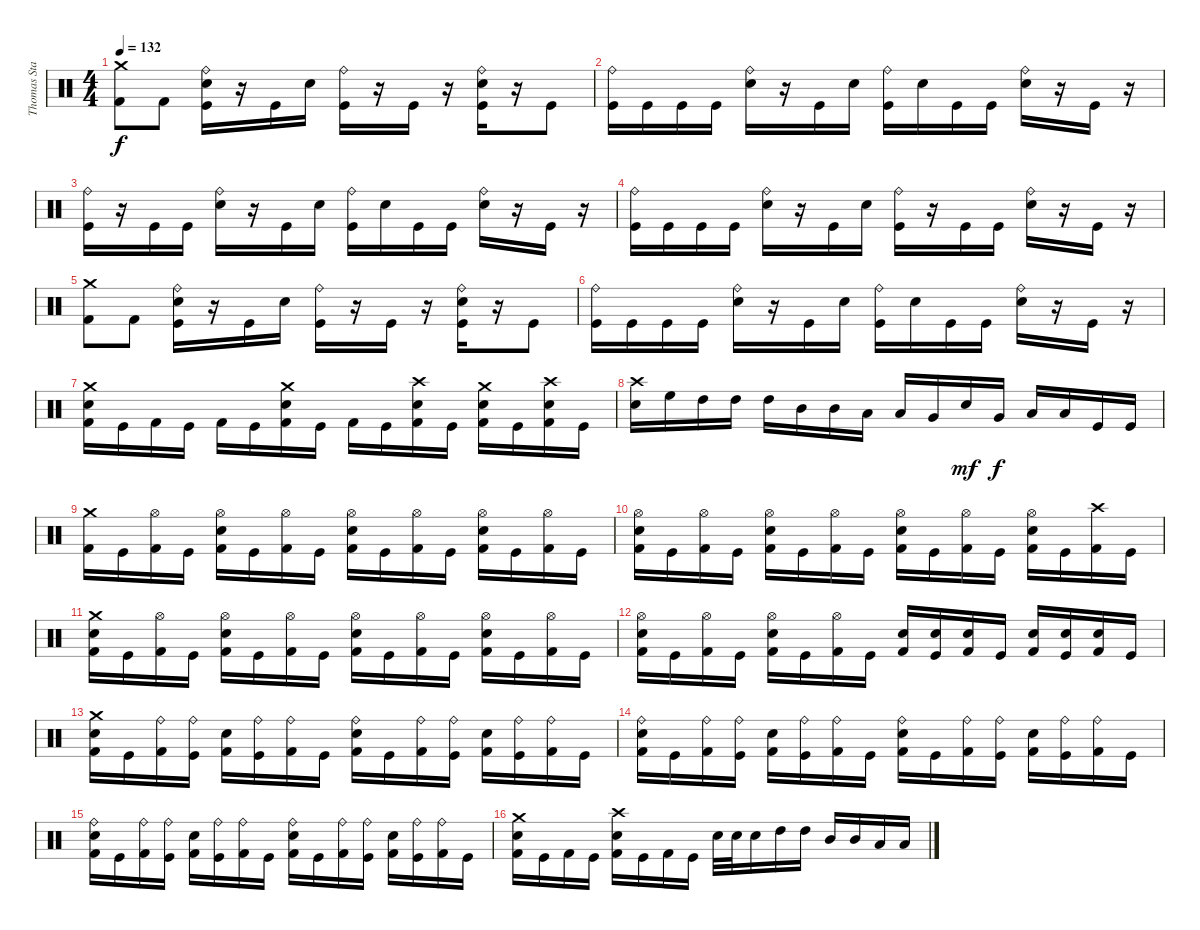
\track ("Thomas Stauch" "Thomas Sta") {instrument percussion}
\staff {score}
\articulation defaults
\ts (4 4)
\tempo 132
\clef neutral
\ks c
("Crash medium (hit)" "Kick (hit) 2").8{dy f} "Kick (hit) 2".8 ("Ride (bell)" "Electric Snare (hit)" "Kick (hit)").16 r.16 "Kick (hit)".16 "Electric Snare (hit)".16 ("Ride (bell)" "Kick (hit)").16 r.16 "Kick (hit)".16 r.16 ("Ride (bell)" "Electric Snare (hit)" "Kick (hit)").16 r.16 "Kick (hit)".8 |
("Ride (bell)" "Kick (hit)").16 "Kick (hit)".16 "Kick (hit)".16 "Kick (hit)".16 ("Ride (bell)" "Electric Snare (hit)").16 r.16 "Kick (hit)".16 "Electric Snare (hit)".16 ("Ride (bell)" "Kick (hit)").16 "Electric Snare (hit)".16 "Kick (hit)".16 "Kick (hit)".16 ("Ride (bell)" "Electric Snare (hit)").16 r.16 "Kick (hit)".16 r.16 |
("Ride (bell)" "Kick (hit)").16 r.16 "Kick (hit)".16 "Kick (hit)".16 ("Ride (bell)" "Electric Snare (hit)").16 r.16 "Kick (hit)".16 "Electric Snare (hit)".16 ("Ride (bell)" "Kick (hit)").16 "Electric Snare (hit)".16 "Kick (hit)".16 "Kick (hit)".16 ("Ride (bell)" "Electric Snare (hit)").16 r.16 "Kick (hit)".16 r.16 |
("Ride (bell)" "Kick (hit)").16 "Kick (hit)".16 "Kick (hit)".16 "Kick (hit)".16 ("Ride (bell)" "Electric Snare (hit)").16 r.16 "Kick (hit)".16 "Electric Snare (hit)".16 ("Ride (bell)" "Kick (hit)").16 r.16 "Kick (hit)".16 "Kick (hit)".16 ("Ride (bell)" "Electric Snare (hit)").16 r.16 "Kick (hit)".16 r.16 |
("Crash medium (hit)" "Kick (hit) 2").8 "Kick (hit) 2".8 ("Ride (bell)" "Electric Snare (hit)" "Kick (hit)").16 r.16 "Kick (hit)".16 "Electric Snare (hit)".16 ("Ride (bell)" "Kick (hit)").16 r.16 "Kick (hit)".16 r.16 ("Ride (bell)" "Electric Snare (hit)" "Kick (hit)").16 r.16 "Kick (hit)".8 |
("Ride (bell)" "Kick (hit)").16 "Kick (hit)".16 "Kick (hit)".16 "Kick (hit)".16 ("Ride (bell)" "Electric Snare (hit)").16 r.16 "Kick (hit)".16 "Electric Snare (hit)".16 ("Ride (bell)" "Kick (hit)").16 "Electric Snare (hit)".16 "Kick (hit)".16 "Kick (hit)".16 ("Ride (bell)" "Electric Snare (hit)").16 r.16 "Kick (hit)".16 r.16 |
("Crash medium (hit)" "Electric Snare (hit)" "Kick (hit) 2").16 "Kick (hit)".16 "Kick (hit) 2".16 "Kick (hit)".16 "Kick (hit) 2".16 "Kick (hit)".16 ("Crash medium (hit)" "Electric Snare (hit)" "Kick (hit) 2").16 "Kick (hit)".16 "Kick (hit) 2".16 "Kick (hit)".16 ("Crash high (hit)" "Electric Snare (hit)" "Kick (hit) 2").16 "Kick (hit)".16 ("Crash medium (hit)" "Electric Snare (hit)" "Kick (hit) 2").16 "Kick (hit)".16 ("Crash high (hit)" "Electric Snare (hit)" "Kick (hit) 2").16 "Kick (hit)".16 |
("Crash high (hit)" "Electric Snare (hit)").16 "High Floor Tom (hit)".16 "High Tom (hit)".16 "High Tom (hit)".16 "High Tom (hit)".16 "Mid Tom (hit)".16 "Mid Tom (hit)".16 "Low Tom (hit)".16 "Low Tom (hit)".16 "Very Low Tom (hit)".16 "Electric Snare (hit)".16{dy mf} "Very Low Tom (hit)".16{dy f} "Low Floor Tom (hit)".16 "Low Floor Tom (hit)".16 "Kick (hit)".16 "Kick (hit)".16 |
("Crash medium (hit)" "Kick (hit) 2").16 "Kick (hit)".16 ("Hi-Hat (open)" "Kick (hit) 2").16 "Kick (hit)".16 ("Hi-Hat (open)" "Electric Snare (hit)" "Kick (hit) 2").16 "Kick (hit)".16 ("Hi-Hat (open)" "Kick (hit) 2").16 "Kick (hit)".16 ("Hi-Hat (open)" "Electric Snare (hit)" "Kick (hit) 2").16 "Kick (hit)".16 ("Hi-Hat (open)" "Kick (hit) 2").16 "Kick (hit)".16 ("Hi-Hat (open)" "Electric Snare (hit)" "Kick (hit) 2").16 "Kick (hit)".16 ("Hi-Hat (open)" "Kick (hit) 2").16 "Kick (hit)".16 |
("Hi-Hat (open)" "Electric Snare (hit)" "Kick (hit) 2").16 "Kick (hit)".16 ("Hi-Hat (open)" "Kick (hit) 2").16 "Kick (hit)".16 ("Hi-Hat (open)" "Electric Snare (hit)" "Kick (hit) 2").16 "Kick (hit)".16 ("Hi-Hat (open)" "Kick (hit) 2").16 "Kick (hit)".16 ("Hi-Hat (open)" "Electric Snare (hit)" "Kick (hit) 2").16 "Kick (hit)".16 ("Hi-Hat (open)" "Kick (hit) 2").16 "Kick (hit)".16 ("Hi-Hat (open)" "Electric Snare (hit)" "Kick (hit) 2").16 "Kick (hit)".16 ("Crash high (hit)" "Kick (hit) 2").16 "Kick (hit)".16 |
("Crash medium (hit)" "Electric Snare (hit)" "Kick (hit) 2").16 "Kick (hit)".16 ("Hi-Hat (open)" "Kick (hit) 2").16 "Kick (hit)".16 ("Hi-Hat (open)" "Electric Snare (hit)" "Kick (hit) 2").16 "Kick (hit)".16 ("Hi-Hat (open)" "Kick (hit) 2").16 "Kick (hit)".16 ("Hi-Hat (open)" "Electric Snare (hit)" "Kick (hit) 2").16 "Kick (hit)".16 ("Hi-Hat (open)" "Kick (hit) 2").16 "Kick (hit)".16 ("Hi-Hat (open)" "Electric Snare (hit)" "Kick (hit) 2").16 "Kick (hit)".16 ("Hi-Hat (open)" "Kick (hit) 2").16 "Kick (hit)".16 |
("Hi-Hat (open)" "Electric Snare (hit)" "Kick (hit) 2").16 "Kick (hit)".16 ("Hi-Hat (open)" "Kick (hit) 2").16 "Kick (hit)".16 ("Hi-Hat (open)" "Electric Snare (hit)" "Kick (hit) 2").16 "Kick (hit)".16 ("Hi-Hat (open)" "Kick (hit) 2").16 "Kick (hit)".16 ("Electric Snare (hit)" "Kick (hit) 2").16 ("Electric Snare (hit)" "Kick (hit)").16 ("Electric Snare (hit)" "Kick (hit) 2").16 "Kick (hit)".16 ("Electric Snare (hit)" "Kick (hit) 2").16 ("Electric Snare (hit)" "Kick (hit)").16 ("Electric Snare (hit)" "Kick (hit) 2").16 "Kick (hit)".16 |
("Crash medium (hit)" "Electric Snare (hit)" "Kick (hit) 2").16 "Kick (hit)".16 ("Ride (bell)" "Kick (hit) 2").16 ("Ride (bell)" "Kick (hit)").16 ("Electric Snare (hit)" "Kick (hit) 2").16 ("Ride (bell)" "Kick (hit)").16 ("Ride (bell)" "Kick (hit) 2").16 "Kick (hit)".16 ("Ride (bell)" "Electric Snare (hit)" "Kick (hit) 2").16 "Kick (hit)".16 ("Ride (bell)" "Kick (hit) 2").16 ("Ride (bell)" "Kick (hit)").16 ("Electric Snare (hit)" "Kick (hit) 2").16 ("Ride (bell)" "Kick (hit)").16 ("Ride (bell)" "Kick (hit) 2").16 "Kick (hit)".16 |
("Ride (bell)" "Electric Snare (hit)" "Kick (hit) 2").16 "Kick (hit)".16 ("Ride (bell)" "Kick (hit) 2").16 ("Ride (bell)" "Kick (hit)").16 ("Electric Snare (hit)" "Kick (hit) 2").16 ("Ride (bell)" "Kick (hit)").16 ("Ride (bell)" "Kick (hit) 2").16 "Kick (hit)".16 ("Ride (bell)" "Electric Snare (hit)" "Kick (hit) 2").16 "Kick (hit)".16 ("Ride (bell)" "Kick (hit) 2").16 ("Ride (bell)" "Kick (hit)").16 ("Electric Snare (hit)" "Kick (hit) 2").16 ("Ride (bell)" "Kick (hit)").16 ("Ride (bell)" "Kick (hit) 2").16 "Kick (hit)".16 |
("Ride (bell)" "Electric Snare (hit)" "Kick (hit) 2").16 "Kick (hit)".16 ("Ride (bell)" "Kick (hit) 2").16 ("Ride (bell)" "Kick (hit)").16 ("Electric Snare (hit)" "Kick (hit) 2").16 ("Ride (bell)" "Kick (hit)").16 ("Ride (bell)" "Kick (hit) 2").16 "Kick (hit)".16 ("Ride (bell)" "Electric Snare (hit)" "Kick (hit) 2").16 "Kick (hit)".16 ("Ride (bell)" "Kick (hit) 2").16 ("Ride (bell)" "Kick (hit)").16 ("Electric Snare (hit)" "Kick (hit) 2").16 ("Ride (bell)" "Kick (hit)").16 ("Ride (bell)" "Kick (hit) 2").16 "Kick (hit)".16 |
("Crash medium (hit)" "Electric Snare (hit)" "Kick (hit) 2").16 "Kick (hit)".16 "Kick (hit) 2".16 "Kick (hit)".16 ("Crash high (hit)" "Electric Snare (hit)" "Kick (hit) 2").16 "Kick (hit)".16 "Kick (hit) 2".16 "Kick (hit)".16 "Electric Snare (hit)".32 "Electric Snare (hit)".32 "Electric Snare (hit)".16 "High Tom (hit)".16 "High Tom (hit)".16 "Mid Tom (hit)".16 "Mid Tom (hit)".16 "Low Tom (hit)".16 "Low Tom (hit)".16
